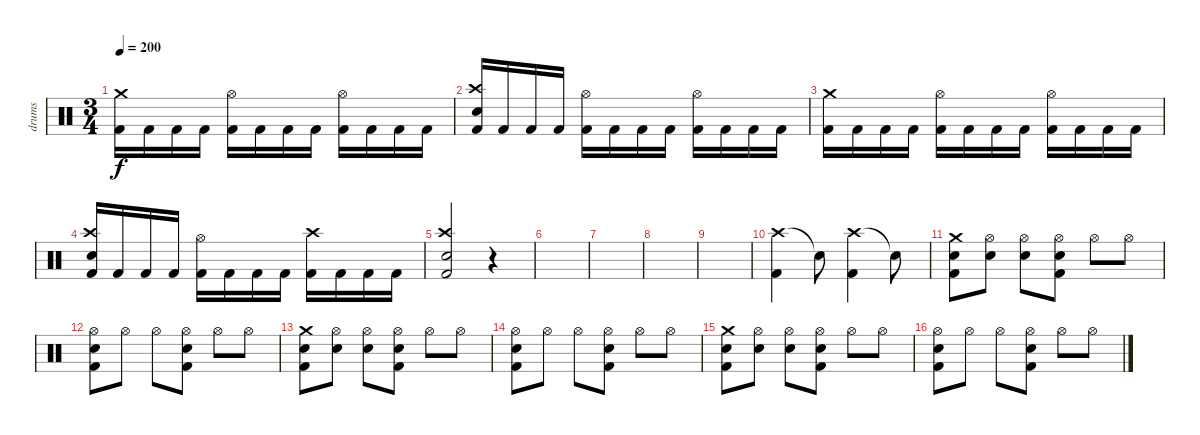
\track ("drums" "drums") {instrument percussion}
\staff {score}
\articulation defaults
\ts (3 4)
\tempo 200
\clef neutral
\ks c
("Crash medium (hit)" "Kick (hit) 2").16{dy f} "Kick (hit) 2".16 "Kick (hit) 2".16 "Kick (hit) 2".16 ("Hi-Hat (open)" "Kick (hit) 2").16 "Kick (hit) 2".16 "Kick (hit) 2".16 "Kick (hit) 2".16 ("Hi-Hat (open)" "Kick (hit) 2").16 "Kick (hit) 2".16 "Kick (hit) 2".16 "Kick (hit) 2".16 |
("Crash high (hit)" "Snare (hit) 2" "Kick (hit) 2").16 "Kick (hit) 2".16 "Kick (hit) 2".16 "Kick (hit) 2".16 ("Hi-Hat (open)" "Kick (hit) 2").16 "Kick (hit) 2".16 "Kick (hit) 2".16 "Kick (hit) 2".16 ("Hi-Hat (open)" "Kick (hit) 2").16 "Kick (hit) 2".16 "Kick (hit) 2".16 "Kick (hit) 2".16 |
("Crash medium (hit)" "Kick (hit) 2").16 "Kick (hit) 2".16 "Kick (hit) 2".16 "Kick (hit) 2".16 ("Hi-Hat (open)" "Kick (hit) 2").16 "Kick (hit) 2".16 "Kick (hit) 2".16 "Kick (hit) 2".16 ("Hi-Hat (open)" "Kick (hit) 2").16 "Kick (hit) 2".16 "Kick (hit) 2".16 "Kick (hit) 2".16 |
("Crash high (hit)" "Snare (hit) 2" "Kick (hit) 2").16 "Kick (hit) 2".16 "Kick (hit) 2".16 "Kick (hit) 2".16 ("Hi-Hat (open)" "Kick (hit) 2").16 "Kick (hit) 2".16 "Kick (hit) 2".16 "Kick (hit) 2".16 ("Crash high (hit)" "Kick (hit) 2").16 "Kick (hit) 2".16 "Kick (hit) 2".16 "Kick (hit) 2".16 |
("Crash high (hit)" "Snare (hit) 2" "Kick (hit) 2").2 r.4 |
|
|
|
|
("Crash high (hit)" "Kick (hit) 2").4 "Snare (hit)"{t}.8 ("Crash high (hit)" "Kick (hit) 2").4 "Snare (hit)"{t}.8 |
("Crash medium (hit)" "Snare (hit) 2" "Kick (hit) 2").8 ("Hi-Hat (open)" "Snare (hit) 2").8 ("Hi-Hat (open)" "Snare (hit) 2").8 ("Hi-Hat (open)" "Snare (hit) 2" "Kick (hit) 2").8 "Hi-Hat (open)".8 "Hi-Hat (open)".8 |
("Hi-Hat (open)" "Snare (hit) 2" "Kick (hit) 2").8 "Hi-Hat (open)".8 "Hi-Hat (open)".8 ("Hi-Hat (open)" "Snare (hit) 2" "Kick (hit) 2").8 "Hi-Hat (open)".8 "Hi-Hat (open)".8 |
("Crash medium (hit)" "Snare (hit) 2" "Kick (hit) 2").8 ("Hi-Hat (open)" "Snare (hit) 2").8 ("Hi-Hat (open)" "Snare (hit) 2").8 ("Hi-Hat (open)" "Snare (hit) 2" "Kick (hit) 2").8 "Hi-Hat (open)".8 "Hi-Hat (open)".8 |
("Hi-Hat (open)" "Snare (hit) 2" "Kick (hit) 2").8 "Hi-Hat (open)".8 "Hi-Hat (open)".8 ("Hi-Hat (open)" "Snare (hit) 2" "Kick (hit) 2").8 "Hi-Hat (open)".8 "Hi-Hat (open)".8 |
("Crash medium (hit)" "Snare (hit) 2" "Kick (hit) 2").8 ("Hi-Hat (open)" "Snare (hit) 2").8 ("Hi-Hat (open)" "Snare (hit) 2").8 ("Hi-Hat (open)" "Snare (hit) 2" "Kick (hit) 2").8 "Hi-Hat (open)".8 "Hi-Hat (open)".8 |
("Hi-Hat (open)" "Snare (hit) 2" "Kick (hit) 2").8 "Hi-Hat (open)".8 "Hi-Hat (open)".8 ("Hi-Hat (open)" "Snare (hit) 2" "Kick (hit) 2").8 "Hi-Hat (open)".8 "Hi-Hat (open)".8
